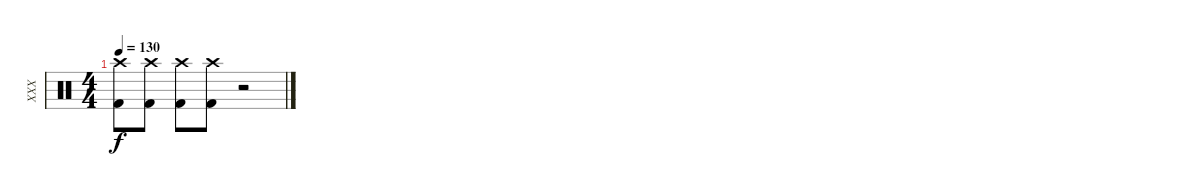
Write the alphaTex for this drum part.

\track ("XXX" "XXX") {instrument percussion}
\staff {score}
\articulation defaults
\ts (4 4)
\tempo 130
\clef neutral
\ks c
("Crash high (hit)" "Kick (hit) 2").8{dy f} ("Crash high (hit)" "Kick (hit) 2").8 ("Crash high (hit)" "Kick (hit) 2").8 ("Crash high (hit)" "Kick (hit) 2").8 r.2
